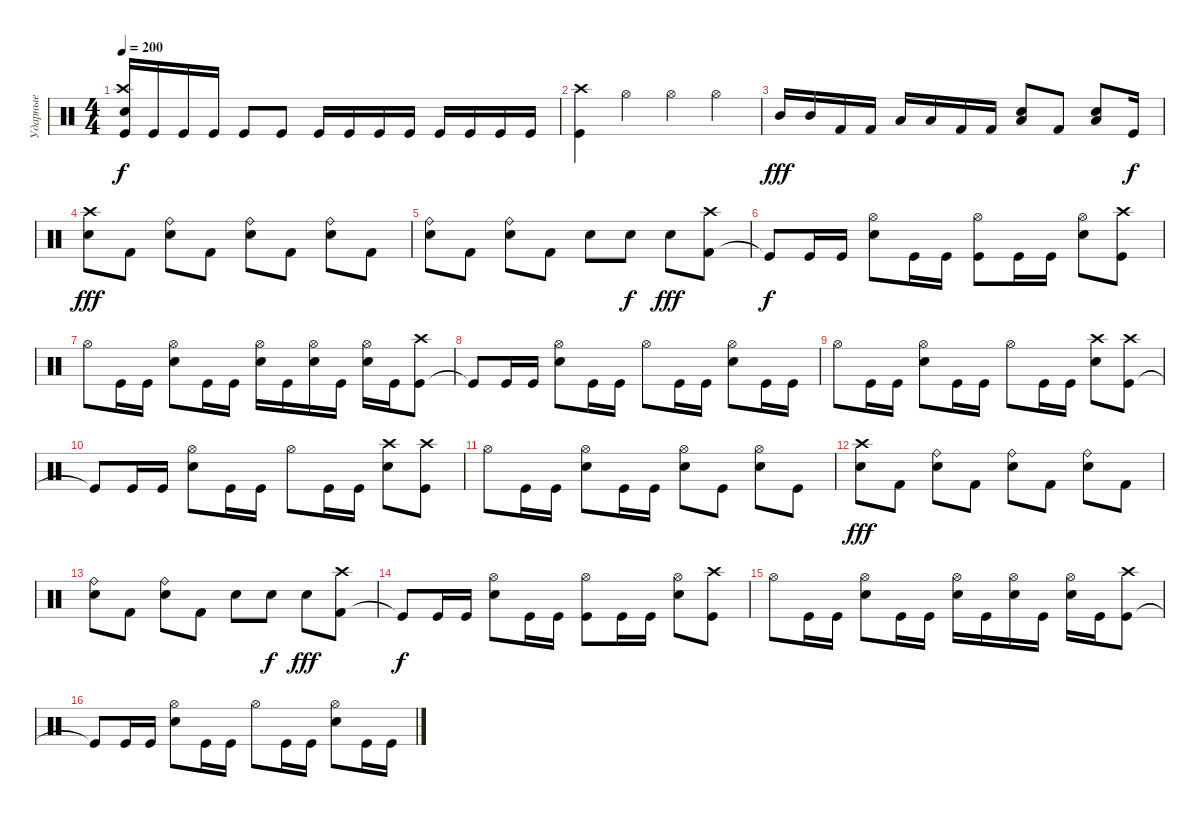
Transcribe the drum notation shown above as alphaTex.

\track ("Ударные" "Ударные") {instrument percussion}
\staff {score}
\articulation defaults
\ts (4 4)
\tempo 200
\clef neutral
\ks c
("Kick (hit)" "Crash high (hit)" "Snare (hit) 2").16{dy f} "Kick (hit)".16 "Kick (hit)".16 "Kick (hit)".16 "Kick (hit)".8 "Kick (hit)".8 "Kick (hit)".16 "Kick (hit)".16 "Kick (hit)".16 "Kick (hit)".16 "Kick (hit)".16 "Kick (hit)".16 "Kick (hit)".16 "Kick (hit)".16 |
("Kick (hit)" "Crash high (hit)").4 "Hi-Hat (open)".4 "Hi-Hat (open)".4 "Hi-Hat (open)".4 |
"Mid Tom (hit)".16{dy fff} "Mid Tom (hit)".16 "Kick (hit) 2".16 "Kick (hit) 2".16 "Low Tom (hit)".16 "Low Tom (hit)".16 "Kick (hit) 2".16 "Kick (hit) 2".16 ("Electric Snare (hit)" "Low Floor Tom (hit)").8 "Kick (hit) 2".8 ("Electric Snare (hit)" "Low Floor Tom (hit)").8 "Kick (hit)".16{dy f} |
("Electric Snare (hit)" "Crash high (hit)").8{dy fff} "Kick (hit) 2".8 ("Ride (bell)" "Electric Snare (hit)").8 "Kick (hit) 2".8 ("Ride (bell)" "Electric Snare (hit)").8 "Kick (hit) 2".8 ("Ride (bell)" "Electric Snare (hit)").8 "Kick (hit) 2".8 |
("Ride (bell)" "Electric Snare (hit)").8 "Kick (hit) 2".8 ("Ride (bell)" "Electric Snare (hit)").8 "Kick (hit) 2".8 "Electric Snare (hit)".8 "Snare (hit) 2".8{dy f} "Electric Snare (hit)".8{dy fff} ("Kick (hit) 2" "Crash high (hit)").8 |
"Kick (hit)"{t}.8{dy f} "Kick (hit)".16 "Kick (hit)".16 ("Snare (hit) 2" "Hi-Hat (open)").8 "Kick (hit)".16 "Kick (hit)".16 ("Hi-Hat (open)" "Kick (hit)").8 "Kick (hit)".16 "Kick (hit)".16 ("Snare (hit) 2" "Hi-Hat (open)").8 ("Kick (hit)" "Crash high (hit)").8 |
"Hi-Hat (open)".8 "Kick (hit)".16 "Kick (hit)".16 ("Snare (hit) 2" "Hi-Hat (open)").8 "Kick (hit)".16 "Kick (hit)".16 ("Hi-Hat (open)" "Snare (hit) 2").16 "Kick (hit)".16 ("Snare (hit) 2" "Hi-Hat (open)").16 "Kick (hit)".16 ("Snare (hit) 2" "Hi-Hat (open)").16 "Kick (hit)".16 ("Kick (hit)" "Crash high (hit)").8 |
"Kick (hit)"{t}.8 "Kick (hit)".16 "Kick (hit)".16 ("Snare (hit) 2" "Hi-Hat (open)").8 "Kick (hit)".16 "Kick (hit)".16 "Hi-Hat (open)".8 "Kick (hit)".16 "Kick (hit)".16 ("Snare (hit) 2" "Hi-Hat (open)").8 "Kick (hit)".16 "Kick (hit)".16 |
"Hi-Hat (open)".8 "Kick (hit)".16 "Kick (hit)".16 ("Snare (hit) 2" "Hi-Hat (open)").8 "Kick (hit)".16 "Kick (hit)".16 "Hi-Hat (open)".8 "Kick (hit)".16 "Kick (hit)".16 ("Snare (hit) 2" "Crash high (hit)").8 ("Kick (hit)" "Crash high (hit)").8 |
"Kick (hit)"{t}.8 "Kick (hit)".16 "Kick (hit)".16 ("Snare (hit) 2" "Hi-Hat (open)").8 "Kick (hit)".16 "Kick (hit)".16 "Hi-Hat (open)".8 "Kick (hit)".16 "Kick (hit)".16 ("Snare (hit) 2" "Crash high (hit)").8 ("Kick (hit)" "Crash high (hit)").8 |
"Hi-Hat (open)".8 "Kick (hit)".16 "Kick (hit)".16 ("Snare (hit) 2" "Hi-Hat (open)").8 "Kick (hit)".16 "Kick (hit)".16 ("Hi-Hat (open)" "Snare (hit) 2").8 "Kick (hit)".8 ("Snare (hit) 2" "Hi-Hat (open)").8 "Kick (hit)".8 |
("Electric Snare (hit)" "Crash high (hit)").8{dy fff} "Kick (hit) 2".8 ("Ride (bell)" "Electric Snare (hit)").8 "Kick (hit) 2".8 ("Ride (bell)" "Electric Snare (hit)").8 "Kick (hit) 2".8 ("Ride (bell)" "Electric Snare (hit)").8 "Kick (hit) 2".8 |
("Ride (bell)" "Electric Snare (hit)").8 "Kick (hit) 2".8 ("Ride (bell)" "Electric Snare (hit)").8 "Kick (hit) 2".8 "Electric Snare (hit)".8 "Snare (hit) 2".8{dy f} "Electric Snare (hit)".8{dy fff} ("Kick (hit) 2" "Crash high (hit)").8 |
"Kick (hit)"{t}.8{dy f} "Kick (hit)".16 "Kick (hit)".16 ("Snare (hit) 2" "Hi-Hat (open)").8 "Kick (hit)".16 "Kick (hit)".16 ("Hi-Hat (open)" "Kick (hit)").8 "Kick (hit)".16 "Kick (hit)".16 ("Snare (hit) 2" "Hi-Hat (open)").8 ("Kick (hit)" "Crash high (hit)").8 |
"Hi-Hat (open)".8 "Kick (hit)".16 "Kick (hit)".16 ("Snare (hit) 2" "Hi-Hat (open)").8 "Kick (hit)".16 "Kick (hit)".16 ("Hi-Hat (open)" "Snare (hit) 2").16 "Kick (hit)".16 ("Snare (hit) 2" "Hi-Hat (open)").16 "Kick (hit)".16 ("Snare (hit) 2" "Hi-Hat (open)").16 "Kick (hit)".16 ("Kick (hit)" "Crash high (hit)").8 |
"Kick (hit)"{t}.8 "Kick (hit)".16 "Kick (hit)".16 ("Snare (hit) 2" "Hi-Hat (open)").8 "Kick (hit)".16 "Kick (hit)".16 "Hi-Hat (open)".8 "Kick (hit)".16 "Kick (hit)".16 ("Snare (hit) 2" "Hi-Hat (open)").8 "Kick (hit)".16 "Kick (hit)".16
